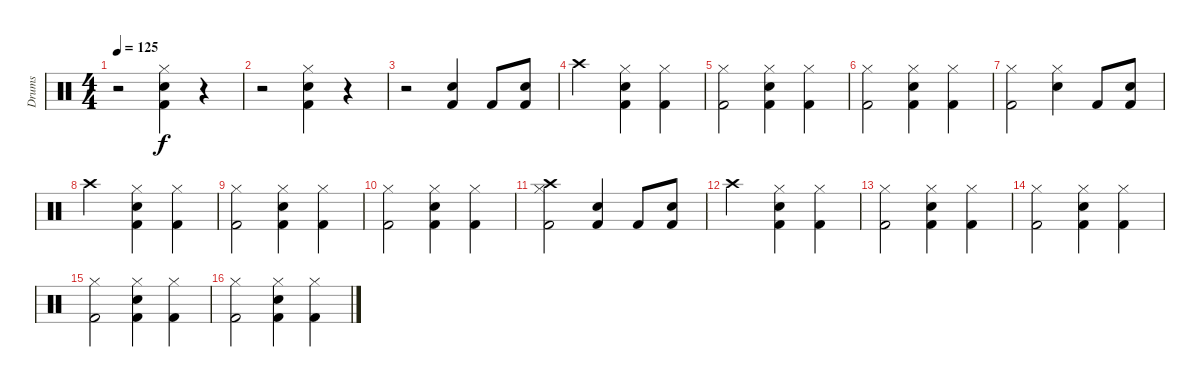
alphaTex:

\track ("Drums" "Drums") {instrument percussion}
\staff {score}
\articulation defaults
\ts (4 4)
\tempo 125
\clef neutral
\ks c
r.2{dy f} ("Hi-Hat (closed)" "Snare (hit) 2" "Kick (hit) 2").4 r.4 |
r.2 ("Hi-Hat (closed)" "Snare (hit) 2" "Kick (hit) 2").4 r.4 |
r.2 ("Snare (hit) 2" "Kick (hit) 2").4 "Kick (hit) 2".8 ("Snare (hit) 2" "Kick (hit) 2").8 |
"Crash high (hit)".2 ("Hi-Hat (closed)" "Snare (hit) 2" "Kick (hit) 2").4 ("Hi-Hat (closed)" "Kick (hit) 2").4 |
("Kick (hit) 2" "Hi-Hat (closed)").2 ("Hi-Hat (closed)" "Snare (hit) 2" "Kick (hit) 2").4 ("Hi-Hat (closed)" "Kick (hit) 2").4 |
("Kick (hit) 2" "Hi-Hat (closed)").2 ("Hi-Hat (closed)" "Snare (hit) 2" "Kick (hit) 2").4 ("Hi-Hat (closed)" "Kick (hit) 2").4 |
("Kick (hit) 2" "Hi-Hat (closed)").2 ("Hi-Hat (closed)" "Snare (hit) 2").4 "Kick (hit) 2".8 ("Snare (hit) 2" "Kick (hit) 2").8 |
"Crash high (hit)".2 ("Hi-Hat (closed)" "Snare (hit) 2" "Kick (hit) 2").4 ("Hi-Hat (closed)" "Kick (hit) 2").4 |
("Kick (hit) 2" "Hi-Hat (closed)").2 ("Hi-Hat (closed)" "Snare (hit) 2" "Kick (hit) 2").4 ("Hi-Hat (closed)" "Kick (hit) 2").4 |
("Kick (hit) 2" "Hi-Hat (closed)").2 ("Hi-Hat (closed)" "Snare (hit) 2" "Kick (hit) 2").4 ("Hi-Hat (closed)" "Kick (hit) 2").4 |
("Kick (hit) 2" "Hi-Hat (closed)" "Crash high (hit)").2 ("Snare (hit) 2" "Kick (hit) 2").4 "Kick (hit) 2".8 ("Kick (hit) 2" "Snare (hit) 2").8 |
"Crash high (hit)".2 ("Hi-Hat (closed)" "Snare (hit) 2" "Kick (hit) 2").4 ("Hi-Hat (closed)" "Kick (hit) 2").4 |
("Kick (hit) 2" "Hi-Hat (closed)").2 ("Hi-Hat (closed)" "Snare (hit) 2" "Kick (hit) 2").4 ("Hi-Hat (closed)" "Kick (hit) 2").4 |
("Kick (hit) 2" "Hi-Hat (closed)").2 ("Hi-Hat (closed)" "Snare (hit) 2" "Kick (hit) 2").4 ("Hi-Hat (closed)" "Kick (hit) 2").4 |
("Kick (hit) 2" "Hi-Hat (closed)").2 ("Hi-Hat (closed)" "Snare (hit) 2" "Kick (hit) 2").4 ("Hi-Hat (closed)" "Kick (hit) 2").4 |
("Kick (hit) 2" "Hi-Hat (closed)").2 ("Hi-Hat (closed)" "Snare (hit) 2" "Kick (hit) 2").4 ("Hi-Hat (closed)" "Kick (hit) 2").4
